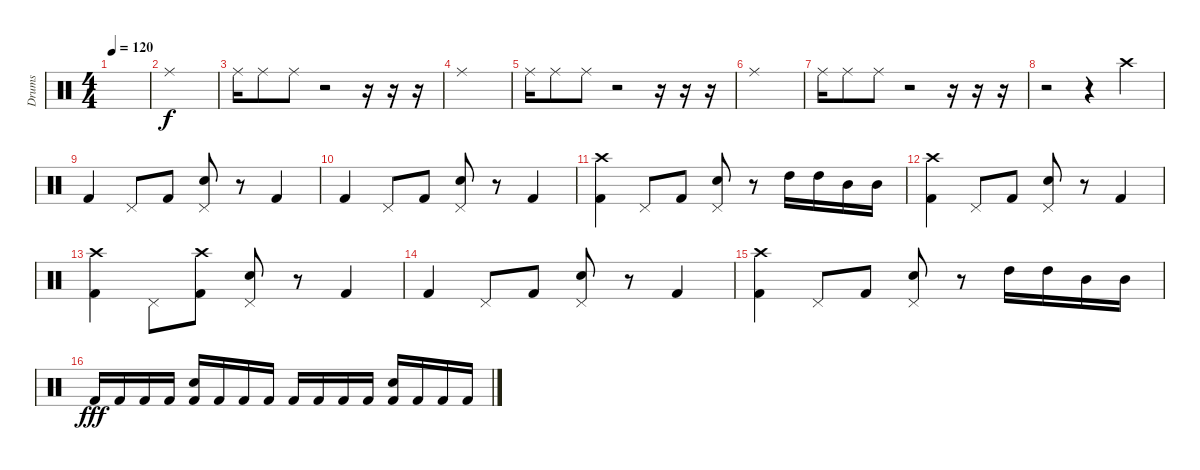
\track ("Drums" "Drums") {instrument percussion}
\staff {score}
\articulation defaults
\ts (4 4)
\tempo 120
\clef neutral
\ks c
|
"Ride (middle)".1{dy f} |
"Ride (middle)".16 "Ride (middle)".8 "Ride (middle)".8 r.2 r.16 r.16 r.16 |
"Ride (middle)".1 |
"Ride (middle)".16 "Ride (middle)".8 "Ride (middle)".8 r.2 r.16 r.16 r.16 |
"Ride (middle)".1 |
"Ride (middle)".16 "Ride (middle)".8 "Ride (middle)".8 r.2 r.16 r.16 r.16 |
r.2 r.4 "Crash high (hit)".4 |
"Kick (hit) 2".4 "Pedal Hi-Hat (hit)".8 "Kick (hit) 2".8 ("Electric Snare (hit)" "Pedal Hi-Hat (hit)").8 r.8 "Kick (hit) 2".4 |
"Kick (hit) 2".4 "Pedal Hi-Hat (hit)".8 "Kick (hit) 2".8 ("Electric Snare (hit)" "Pedal Hi-Hat (hit)").8 r.8 "Kick (hit) 2".4 |
("Crash high (hit)" "Kick (hit) 2").4 "Pedal Hi-Hat (hit)".8 "Kick (hit) 2".8 ("Electric Snare (hit)" "Pedal Hi-Hat (hit)").8 r.8 "High Tom (hit)".16 "High Tom (hit)".16 "Mid Tom (hit)".16 "Mid Tom (hit)".16 |
("Crash high (hit)" "Kick (hit) 2").4 "Pedal Hi-Hat (hit)".8 "Kick (hit) 2".8 ("Electric Snare (hit)" "Pedal Hi-Hat (hit)").8 r.8 "Kick (hit) 2".4 |
("Crash high (hit)" "Kick (hit) 2").4 "Pedal Hi-Hat (hit)".8 ("Crash high (hit)" "Kick (hit) 2").8 ("Electric Snare (hit)" "Pedal Hi-Hat (hit)").8 r.8 "Kick (hit) 2".4 |
"Kick (hit) 2".4 "Pedal Hi-Hat (hit)".8 "Kick (hit) 2".8 ("Electric Snare (hit)" "Pedal Hi-Hat (hit)").8 r.8 "Kick (hit) 2".4 |
("Crash high (hit)" "Kick (hit) 2").4 "Pedal Hi-Hat (hit)".8 "Kick (hit) 2".8 ("Electric Snare (hit)" "Pedal Hi-Hat (hit)").8 r.8 "High Tom (hit)".16 "High Tom (hit)".16 "Mid Tom (hit)".16 "Mid Tom (hit)".16 |
"Kick (hit) 2".16{dy fff} "Kick (hit) 2".16 "Kick (hit) 2".16 "Kick (hit) 2".16 ("Snare (hit) 2" "Kick (hit) 2").16 "Kick (hit) 2".16 "Kick (hit) 2".16 "Kick (hit) 2".16 "Kick (hit) 2".16 "Kick (hit) 2".16 "Kick (hit) 2".16 "Kick (hit) 2".16 ("Snare (hit) 2" "Kick (hit) 2").16 "Kick (hit) 2".16 "Kick (hit) 2".16 "Kick (hit) 2".16
